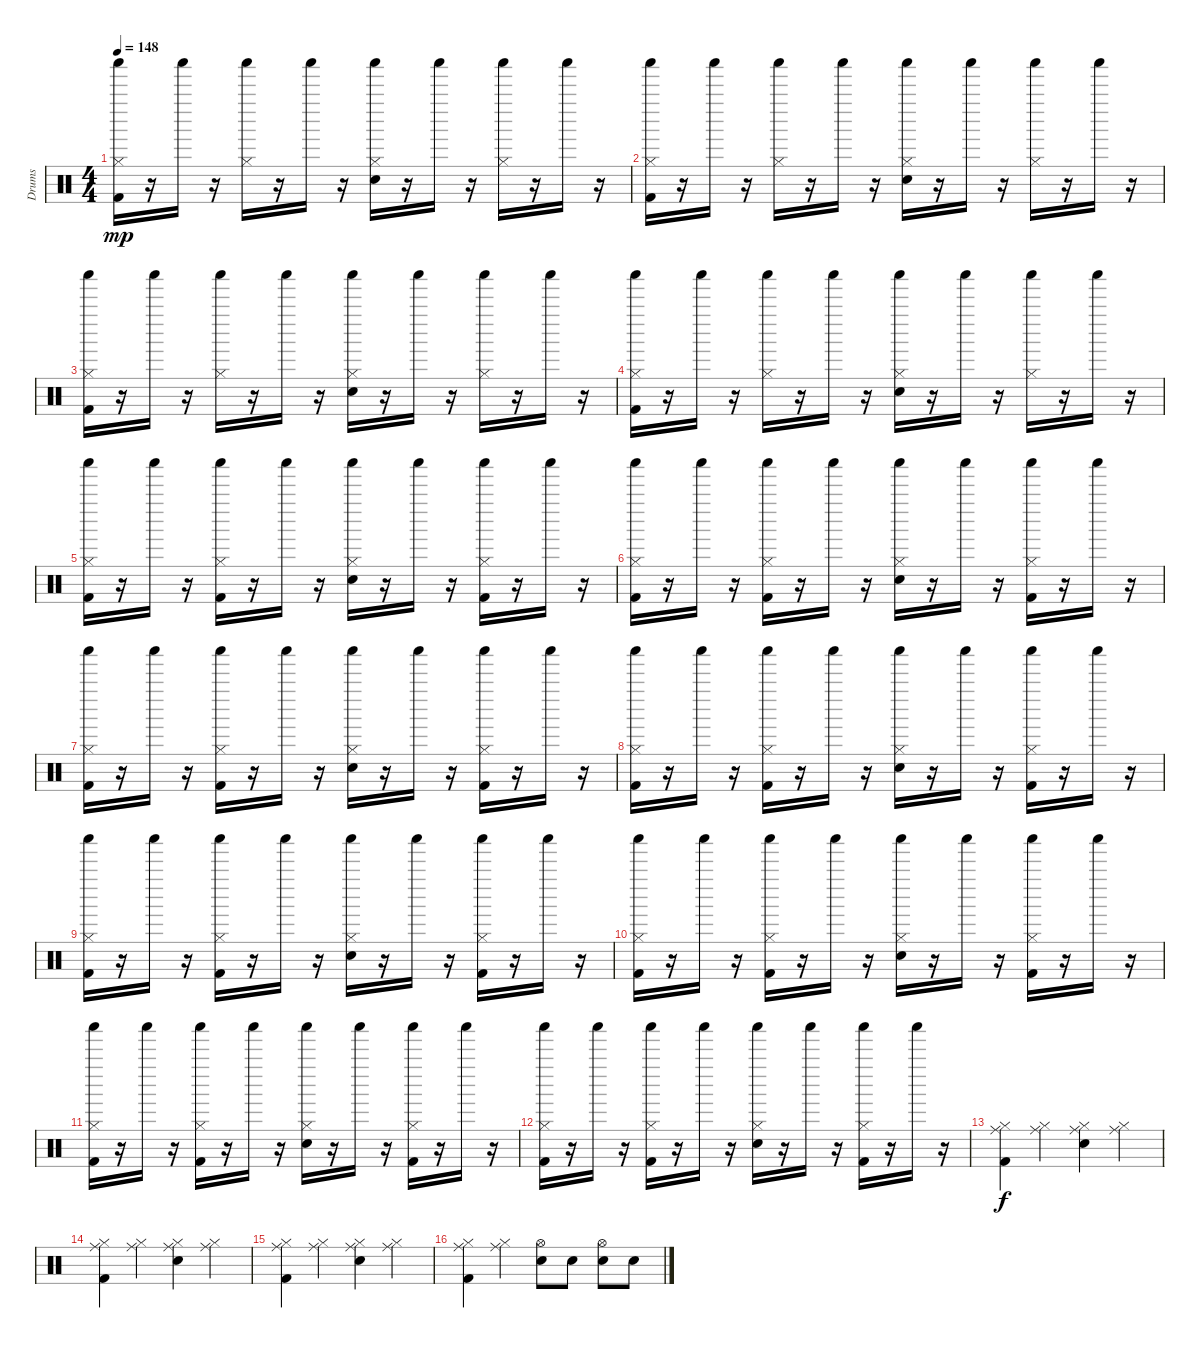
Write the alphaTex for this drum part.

\track ("Drums" "Drums") {instrument percussion}
\staff {score}
\articulation defaults
\ts (4 4)
\tempo 148
\clef neutral
\ks c
("Hi-Hat (closed)" "Kick (hit) 2" "Shaker (hit)").16{dy mp} r.16 "Shaker (hit)".16 r.16 ("Hi-Hat (closed)" "Shaker (hit)").16 r.16 "Shaker (hit)".16 r.16 ("Hi-Hat (closed)" "Snare (hit) 2" "Shaker (hit)").16 r.16 "Shaker (hit)".16 r.16 ("Hi-Hat (closed)" "Shaker (hit)").16 r.16 "Shaker (hit)".16 r.16 |
("Hi-Hat (closed)" "Kick (hit) 2" "Shaker (hit)").16 r.16 "Shaker (hit)".16 r.16 ("Hi-Hat (closed)" "Shaker (hit)").16 r.16 "Shaker (hit)".16 r.16 ("Snare (hit) 2" "Hi-Hat (closed)" "Shaker (hit)").16 r.16 "Shaker (hit)".16 r.16 ("Hi-Hat (closed)" "Shaker (hit)").16 r.16 "Shaker (hit)".16 r.16 |
("Hi-Hat (closed)" "Kick (hit) 2" "Shaker (hit)").16 r.16 "Shaker (hit)".16 r.16 ("Hi-Hat (closed)" "Shaker (hit)").16 r.16 "Shaker (hit)".16 r.16 ("Hi-Hat (closed)" "Snare (hit) 2" "Shaker (hit)").16 r.16 "Shaker (hit)".16 r.16 ("Hi-Hat (closed)" "Shaker (hit)").16 r.16 "Shaker (hit)".16 r.16 |
("Hi-Hat (closed)" "Kick (hit) 2" "Shaker (hit)").16 r.16 "Shaker (hit)".16 r.16 ("Hi-Hat (closed)" "Shaker (hit)").16 r.16 "Shaker (hit)".16 r.16 ("Hi-Hat (closed)" "Snare (hit) 2" "Shaker (hit)").16 r.16 "Shaker (hit)".16 r.16 ("Hi-Hat (closed)" "Shaker (hit)").16 r.16 "Shaker (hit)".16 r.16 |
("Kick (hit) 2" "Hi-Hat (closed)" "Shaker (hit)").16 r.16 "Shaker (hit)".16 r.16 ("Kick (hit) 2" "Hi-Hat (closed)" "Shaker (hit)").16 r.16 "Shaker (hit)".16 r.16 ("Snare (hit) 2" "Hi-Hat (closed)" "Shaker (hit)").16 r.16 "Shaker (hit)".16 r.16 ("Kick (hit) 2" "Hi-Hat (closed)" "Shaker (hit)").16 r.16 "Shaker (hit)".16 r.16 |
("Shaker (hit)" "Kick (hit) 2" "Hi-Hat (closed)").16 r.16 "Shaker (hit)".16 r.16 ("Shaker (hit)" "Kick (hit) 2" "Hi-Hat (closed)").16 r.16 "Shaker (hit)".16 r.16 ("Shaker (hit)" "Snare (hit) 2" "Hi-Hat (closed)").16 r.16 "Shaker (hit)".16 r.16 ("Shaker (hit)" "Kick (hit) 2" "Hi-Hat (closed)").16 r.16 "Shaker (hit)".16 r.16 |
("Shaker (hit)" "Kick (hit) 2" "Hi-Hat (closed)").16 r.16 "Shaker (hit)".16 r.16 ("Shaker (hit)" "Kick (hit) 2" "Hi-Hat (closed)").16 r.16 "Shaker (hit)".16 r.16 ("Shaker (hit)" "Snare (hit) 2" "Hi-Hat (closed)").16 r.16 "Shaker (hit)".16 r.16 ("Shaker (hit)" "Kick (hit) 2" "Hi-Hat (closed)").16 r.16 "Shaker (hit)".16 r.16 |
("Kick (hit) 2" "Hi-Hat (closed)" "Shaker (hit)").16 r.16 "Shaker (hit)".16 r.16 ("Kick (hit) 2" "Hi-Hat (closed)" "Shaker (hit)").16 r.16 "Shaker (hit)".16 r.16 ("Snare (hit) 2" "Hi-Hat (closed)" "Shaker (hit)").16 r.16 "Shaker (hit)".16 r.16 ("Kick (hit) 2" "Hi-Hat (closed)" "Shaker (hit)").16 r.16 "Shaker (hit)".16 r.16 |
("Kick (hit) 2" "Hi-Hat (closed)" "Shaker (hit)").16 r.16 "Shaker (hit)".16 r.16 ("Kick (hit) 2" "Hi-Hat (closed)" "Shaker (hit)").16 r.16 "Shaker (hit)".16 r.16 ("Snare (hit) 2" "Hi-Hat (closed)" "Shaker (hit)").16 r.16 "Shaker (hit)".16 r.16 ("Kick (hit) 2" "Hi-Hat (closed)" "Shaker (hit)").16 r.16 "Shaker (hit)".16 r.16 |
("Shaker (hit)" "Kick (hit) 2" "Hi-Hat (closed)").16 r.16 "Shaker (hit)".16 r.16 ("Shaker (hit)" "Kick (hit) 2" "Hi-Hat (closed)").16 r.16 "Shaker (hit)".16 r.16 ("Shaker (hit)" "Snare (hit) 2" "Hi-Hat (closed)").16 r.16 "Shaker (hit)".16 r.16 ("Shaker (hit)" "Kick (hit) 2" "Hi-Hat (closed)").16 r.16 "Shaker (hit)".16 r.16 |
("Shaker (hit)" "Kick (hit) 2" "Hi-Hat (closed)").16 r.16 "Shaker (hit)".16 r.16 ("Shaker (hit)" "Kick (hit) 2" "Hi-Hat (closed)").16 r.16 "Shaker (hit)".16 r.16 ("Shaker (hit)" "Snare (hit) 2" "Hi-Hat (closed)").16 r.16 "Shaker (hit)".16 r.16 ("Shaker (hit)" "Kick (hit) 2" "Hi-Hat (closed)").16 r.16 "Shaker (hit)".16 r.16 |
("Kick (hit) 2" "Hi-Hat (closed)" "Shaker (hit)").16 r.16 "Shaker (hit)".16 r.16 ("Kick (hit) 2" "Hi-Hat (closed)" "Shaker (hit)").16 r.16 "Shaker (hit)".16 r.16 ("Snare (hit) 2" "Hi-Hat (closed)" "Shaker (hit)").16 r.16 "Shaker (hit)".16 r.16 ("Kick (hit) 2" "Hi-Hat (closed)" "Shaker (hit)").16 r.16 "Shaker (hit)".16 r.16 |
("Ride (middle)" "Hi-Hat (closed)" "Kick (hit) 2").4{dy f} ("Ride (middle)" "Hi-Hat (closed)").4 ("Ride (middle)" "Hi-Hat (closed)" "Snare (hit) 2").4 ("Ride (middle)" "Hi-Hat (closed)").4 |
("Ride (middle)" "Hi-Hat (closed)" "Kick (hit) 2").4 ("Ride (middle)" "Hi-Hat (closed)").4 ("Ride (middle)" "Hi-Hat (closed)" "Snare (hit) 2").4 ("Ride (middle)" "Hi-Hat (closed)").4 |
("Ride (middle)" "Hi-Hat (closed)" "Kick (hit) 2").4 ("Ride (middle)" "Hi-Hat (closed)").4 ("Ride (middle)" "Hi-Hat (closed)" "Snare (hit) 2").4 ("Ride (middle)" "Hi-Hat (closed)").4 |
("Ride (middle)" "Hi-Hat (closed)" "Kick (hit) 2").4 ("Ride (middle)" "Hi-Hat (closed)").4 ("Hi-Hat (open)" "Snare (hit) 2").8 "Snare (hit) 2".8 ("Hi-Hat (open)" "Snare (hit) 2").8 "Snare (hit) 2".8
